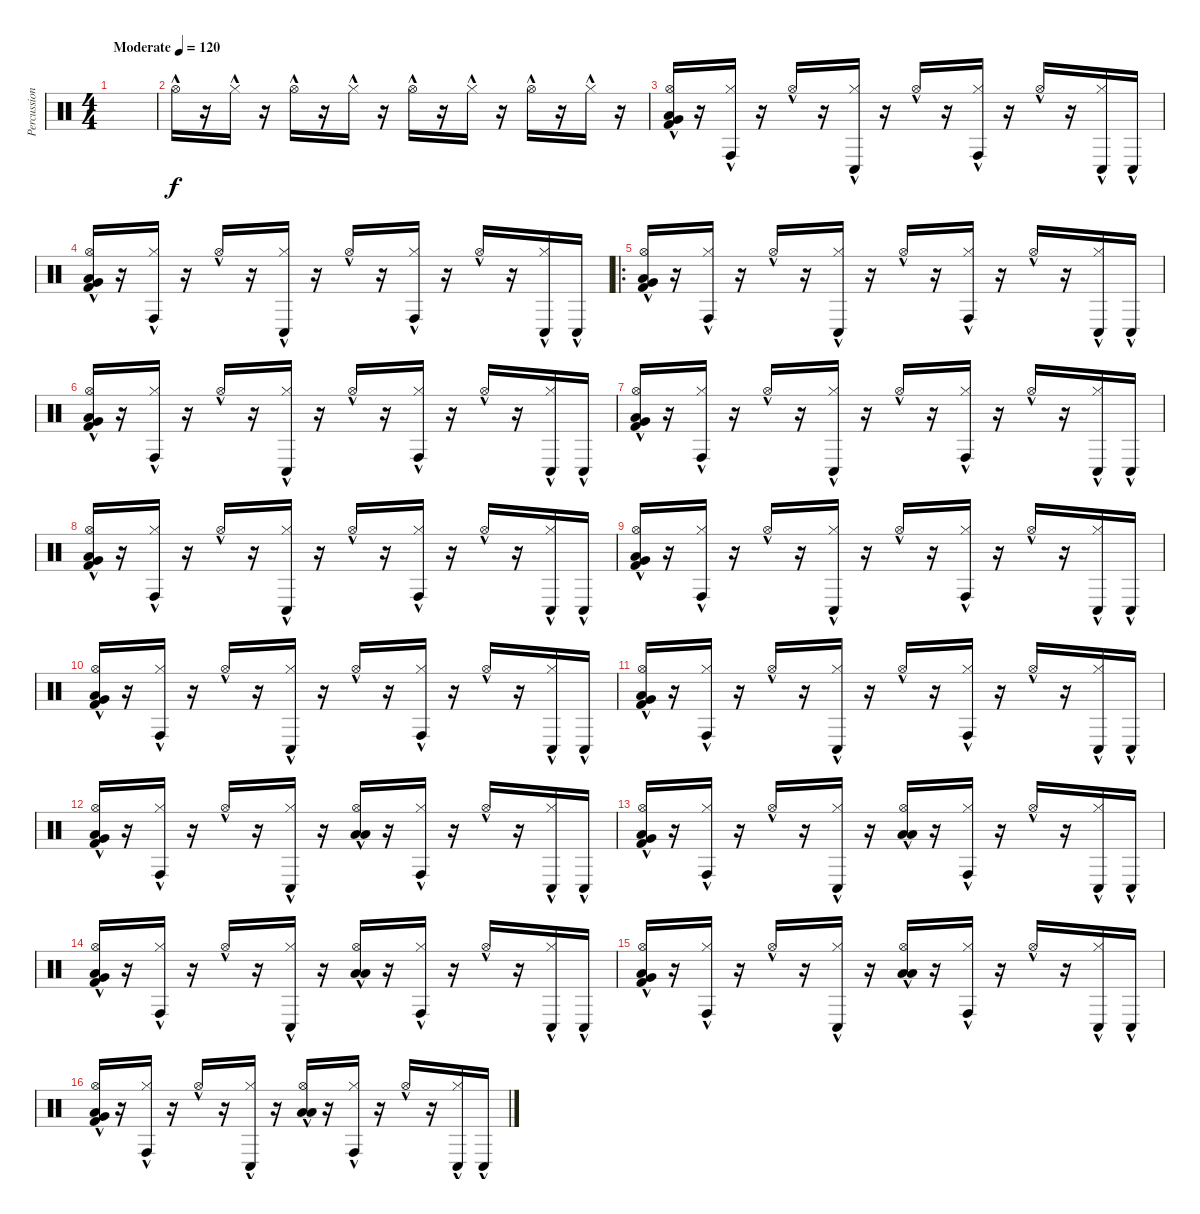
\track ("Percussion" "Percussion") {instrument percussion}
\staff {score}
\articulation defaults
\ts (4 4)
\tempo (120 "Moderate")
\clef neutral
\ks c
|
"Hi-Hat (open)"{hac}.16 r.16 "Hi-Hat (closed)"{hac}.16 r.16 "Hi-Hat (open)"{hac}.16 r.16 "Hi-Hat (closed)"{hac}.16 r.16 "Hi-Hat (open)"{hac}.16 r.16 "Hi-Hat (closed)"{hac}.16 r.16 "Hi-Hat (open)"{hac}.16 r.16 "Hi-Hat (closed)"{hac}.16 r.16 |
("Hi-Hat (open)"{hac} "Very Low Tom (hit)"{hac} "Low Floor Tom (hit)"{hac} "Kick (hit) 2"{hac}).16 r.16 ("Hi-Hat (closed)"{hac} "Conga high (hit)"{hac}).16 r.16 "Hi-Hat (open)"{hac}.16 r.16 ("Hi-Hat (closed)"{hac} "Conga low (hit)"{hac}).16 r.16 "Hi-Hat (open)"{hac}.16 r.16 ("Hi-Hat (closed)"{hac} "Conga high (hit)"{hac}).16 r.16 "Hi-Hat (open)"{hac}.16 r.16 ("Hi-Hat (closed)"{hac} "Conga low (hit)"{hac}).16 "Conga low (hit)"{hac}.16 |
("Hi-Hat (open)"{hac} "Very Low Tom (hit)"{hac} "Low Floor Tom (hit)"{hac} "Kick (hit) 2"{hac}).16 r.16 ("Hi-Hat (closed)"{hac} "Conga high (hit)"{hac}).16 r.16 "Hi-Hat (open)"{hac}.16 r.16 ("Hi-Hat (closed)"{hac} "Conga low (hit)"{hac}).16 r.16 "Hi-Hat (open)"{hac}.16 r.16 ("Hi-Hat (closed)"{hac} "Conga high (hit)"{hac}).16 r.16 "Hi-Hat (open)"{hac}.16 r.16 ("Hi-Hat (closed)"{hac} "Conga low (hit)"{hac}).16 "Conga low (hit)"{hac}.16 |
\ro
("Hi-Hat (open)"{hac} "Very Low Tom (hit)"{hac} "Low Floor Tom (hit)"{hac} "Kick (hit) 2"{hac}).16 r.16 ("Hi-Hat (closed)"{hac} "Conga high (hit)"{hac}).16 r.16 "Hi-Hat (open)"{hac}.16 r.16 ("Hi-Hat (closed)"{hac} "Conga low (hit)"{hac}).16 r.16 "Hi-Hat (open)"{hac}.16 r.16 ("Hi-Hat (closed)"{hac} "Conga high (hit)"{hac}).16 r.16 "Hi-Hat (open)"{hac}.16 r.16 ("Hi-Hat (closed)"{hac} "Conga low (hit)"{hac}).16 "Conga low (hit)"{hac}.16 |
("Hi-Hat (open)"{hac} "Very Low Tom (hit)"{hac} "Low Floor Tom (hit)"{hac} "Kick (hit) 2"{hac}).16 r.16 ("Hi-Hat (closed)"{hac} "Conga high (hit)"{hac}).16 r.16 "Hi-Hat (open)"{hac}.16 r.16 ("Hi-Hat (closed)"{hac} "Conga low (hit)"{hac}).16 r.16 "Hi-Hat (open)"{hac}.16 r.16 ("Hi-Hat (closed)"{hac} "Conga high (hit)"{hac}).16 r.16 "Hi-Hat (open)"{hac}.16 r.16 ("Hi-Hat (closed)"{hac} "Conga low (hit)"{hac}).16 "Conga low (hit)"{hac}.16 |
("Hi-Hat (open)"{hac} "Very Low Tom (hit)"{hac} "Low Floor Tom (hit)"{hac} "Kick (hit) 2"{hac}).16 r.16 ("Hi-Hat (closed)"{hac} "Conga high (hit)"{hac}).16 r.16 "Hi-Hat (open)"{hac}.16 r.16 ("Hi-Hat (closed)"{hac} "Conga low (hit)"{hac}).16 r.16 "Hi-Hat (open)"{hac}.16 r.16 ("Hi-Hat (closed)"{hac} "Conga high (hit)"{hac}).16 r.16 "Hi-Hat (open)"{hac}.16 r.16 ("Hi-Hat (closed)"{hac} "Conga low (hit)"{hac}).16 "Conga low (hit)"{hac}.16 |
("Hi-Hat (open)"{hac} "Very Low Tom (hit)"{hac} "Low Floor Tom (hit)"{hac} "Kick (hit) 2"{hac}).16 r.16 ("Hi-Hat (closed)"{hac} "Conga high (hit)"{hac}).16 r.16 "Hi-Hat (open)"{hac}.16 r.16 ("Hi-Hat (closed)"{hac} "Conga low (hit)"{hac}).16 r.16 "Hi-Hat (open)"{hac}.16 r.16 ("Hi-Hat (closed)"{hac} "Conga high (hit)"{hac}).16 r.16 "Hi-Hat (open)"{hac}.16 r.16 ("Hi-Hat (closed)"{hac} "Conga low (hit)"{hac}).16 "Conga low (hit)"{hac}.16 |
("Hi-Hat (open)"{hac} "Very Low Tom (hit)"{hac} "Low Floor Tom (hit)"{hac} "Kick (hit) 2"{hac}).16 r.16 ("Hi-Hat (closed)"{hac} "Conga high (hit)"{hac}).16 r.16 "Hi-Hat (open)"{hac}.16 r.16 ("Hi-Hat (closed)"{hac} "Conga low (hit)"{hac}).16 r.16 "Hi-Hat (open)"{hac}.16 r.16 ("Hi-Hat (closed)"{hac} "Conga high (hit)"{hac}).16 r.16 "Hi-Hat (open)"{hac}.16 r.16 ("Hi-Hat (closed)"{hac} "Conga low (hit)"{hac}).16 "Conga low (hit)"{hac}.16 |
("Hi-Hat (open)"{hac} "Very Low Tom (hit)"{hac} "Low Floor Tom (hit)"{hac} "Kick (hit) 2"{hac}).16 r.16 ("Hi-Hat (closed)"{hac} "Conga high (hit)"{hac}).16 r.16 "Hi-Hat (open)"{hac}.16 r.16 ("Hi-Hat (closed)"{hac} "Conga low (hit)"{hac}).16 r.16 "Hi-Hat (open)"{hac}.16 r.16 ("Hi-Hat (closed)"{hac} "Conga high (hit)"{hac}).16 r.16 "Hi-Hat (open)"{hac}.16 r.16 ("Hi-Hat (closed)"{hac} "Conga low (hit)"{hac}).16 "Conga low (hit)"{hac}.16 |
("Hi-Hat (open)"{hac} "Very Low Tom (hit)"{hac} "Low Floor Tom (hit)"{hac} "Kick (hit) 2"{hac}).16 r.16 ("Hi-Hat (closed)"{hac} "Conga high (hit)"{hac}).16 r.16 "Hi-Hat (open)"{hac}.16 r.16 ("Hi-Hat (closed)"{hac} "Conga low (hit)"{hac}).16 r.16 "Hi-Hat (open)"{hac}.16 r.16 ("Hi-Hat (closed)"{hac} "Conga high (hit)"{hac}).16 r.16 "Hi-Hat (open)"{hac}.16 r.16 ("Hi-Hat (closed)"{hac} "Conga low (hit)"{hac}).16 "Conga low (hit)"{hac}.16 |
("Hi-Hat (open)"{hac} "Very Low Tom (hit)"{hac} "Low Floor Tom (hit)"{hac} "Kick (hit) 2"{hac}).16 r.16 ("Hi-Hat (closed)"{hac} "Conga high (hit)"{hac}).16 r.16 "Hi-Hat (open)"{hac}.16 r.16 ("Hi-Hat (closed)"{hac} "Conga low (hit)"{hac}).16 r.16 ("Hi-Hat (open)"{hac} "Low Floor Tom (hit)"{hac} "Low Floor Tom (hit)"{hac}).16 r.16 ("Hi-Hat (closed)"{hac} "Conga high (hit)"{hac}).16 r.16 "Hi-Hat (open)"{hac}.16 r.16 ("Hi-Hat (closed)"{hac} "Conga low (hit)"{hac}).16 "Conga low (hit)"{hac}.16 |
("Hi-Hat (open)"{hac} "Very Low Tom (hit)"{hac} "Low Floor Tom (hit)"{hac} "Kick (hit) 2"{hac}).16 r.16 ("Hi-Hat (closed)"{hac} "Conga high (hit)"{hac}).16 r.16 "Hi-Hat (open)"{hac}.16 r.16 ("Hi-Hat (closed)"{hac} "Conga low (hit)"{hac}).16 r.16 ("Hi-Hat (open)"{hac} "Low Floor Tom (hit)"{hac} "Low Floor Tom (hit)"{hac}).16 r.16 ("Hi-Hat (closed)"{hac} "Conga high (hit)"{hac}).16 r.16 "Hi-Hat (open)"{hac}.16 r.16 ("Hi-Hat (closed)"{hac} "Conga low (hit)"{hac}).16 "Conga low (hit)"{hac}.16 |
("Hi-Hat (open)"{hac} "Very Low Tom (hit)"{hac} "Low Floor Tom (hit)"{hac} "Kick (hit) 2"{hac}).16 r.16 ("Hi-Hat (closed)"{hac} "Conga high (hit)"{hac}).16 r.16 "Hi-Hat (open)"{hac}.16 r.16 ("Hi-Hat (closed)"{hac} "Conga low (hit)"{hac}).16 r.16 ("Hi-Hat (open)"{hac} "Low Floor Tom (hit)"{hac} "Low Floor Tom (hit)"{hac}).16 r.16 ("Hi-Hat (closed)"{hac} "Conga high (hit)"{hac}).16 r.16 "Hi-Hat (open)"{hac}.16 r.16 ("Hi-Hat (closed)"{hac} "Conga low (hit)"{hac}).16 "Conga low (hit)"{hac}.16 |
("Hi-Hat (open)"{hac} "Very Low Tom (hit)"{hac} "Low Floor Tom (hit)"{hac} "Kick (hit) 2"{hac}).16 r.16 ("Hi-Hat (closed)"{hac} "Conga high (hit)"{hac}).16 r.16 "Hi-Hat (open)"{hac}.16 r.16 ("Hi-Hat (closed)"{hac} "Conga low (hit)"{hac}).16 r.16 ("Hi-Hat (open)"{hac} "Low Floor Tom (hit)"{hac} "Low Floor Tom (hit)"{hac}).16 r.16 ("Hi-Hat (closed)"{hac} "Conga high (hit)"{hac}).16 r.16 "Hi-Hat (open)"{hac}.16 r.16 ("Hi-Hat (closed)"{hac} "Conga low (hit)"{hac}).16 "Conga low (hit)"{hac}.16 |
("Hi-Hat (open)"{hac} "Very Low Tom (hit)"{hac} "Low Floor Tom (hit)"{hac} "Kick (hit) 2"{hac}).16 r.16 ("Hi-Hat (closed)"{hac} "Conga high (hit)"{hac}).16 r.16 "Hi-Hat (open)"{hac}.16 r.16 ("Hi-Hat (closed)"{hac} "Conga low (hit)"{hac}).16 r.16 ("Hi-Hat (open)"{hac} "Low Floor Tom (hit)"{hac} "Low Floor Tom (hit)"{hac}).16 r.16 ("Hi-Hat (closed)"{hac} "Conga high (hit)"{hac}).16 r.16 "Hi-Hat (open)"{hac}.16 r.16 ("Hi-Hat (closed)"{hac} "Conga low (hit)"{hac}).16 "Conga low (hit)"{hac}.16
